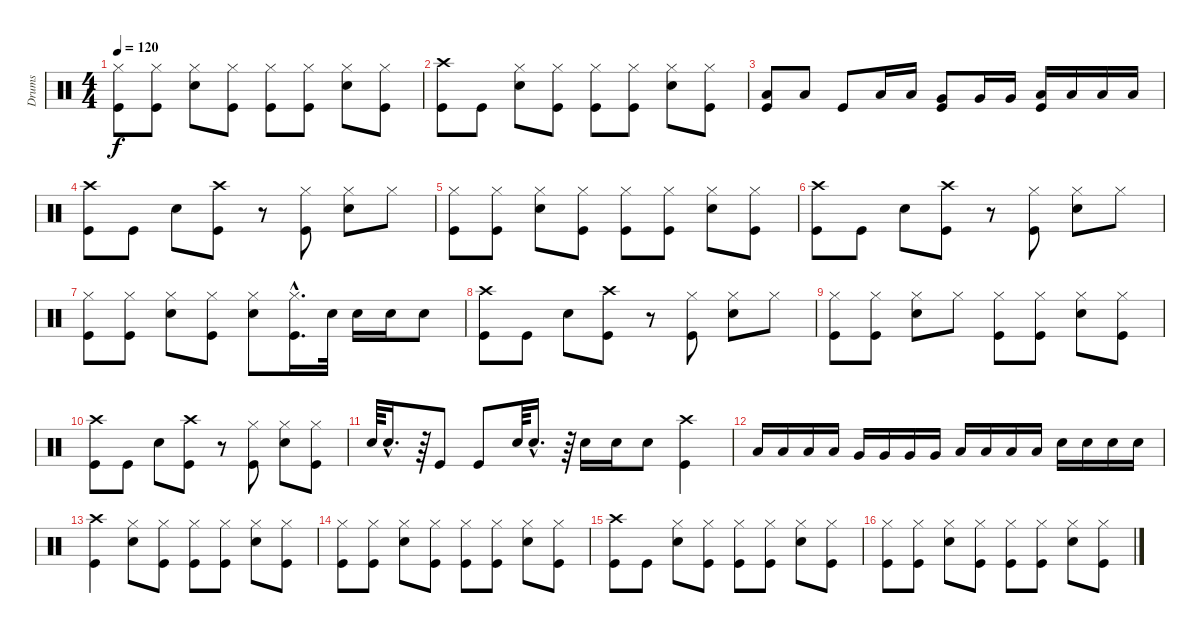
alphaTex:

\track ("Drums" "Drums") {instrument percussion}
\staff {score}
\articulation defaults
\ts (4 4)
\tempo 120
\clef neutral
\ks c
("Hi-Hat (closed)" "Kick (hit)").8{dy f} ("Hi-Hat (closed)" "Kick (hit)").8 ("Hi-Hat (closed)" "Snare (hit) 2").8 ("Hi-Hat (closed)" "Kick (hit)").8 ("Hi-Hat (closed)" "Kick (hit)").8 ("Hi-Hat (closed)" "Kick (hit)").8 ("Hi-Hat (closed)" "Snare (hit) 2").8 ("Hi-Hat (closed)" "Kick (hit)").8 |
("Crash high (hit)" "Kick (hit)").8 "Kick (hit)".8 ("Hi-Hat (closed)" "Snare (hit) 2").8 ("Hi-Hat (closed)" "Kick (hit)").8 ("Hi-Hat (closed)" "Kick (hit)").8 ("Hi-Hat (closed)" "Kick (hit)").8 ("Hi-Hat (closed)" "Snare (hit) 2").8 ("Hi-Hat (closed)" "Kick (hit)").8 |
("Kick (hit)" "Low Tom (hit)").8 "Low Tom (hit)".8 "Kick (hit)".8 "Low Tom (hit)".16 "Low Tom (hit)".16 ("Kick (hit)" "Very Low Tom (hit)").8 "Very Low Tom (hit)".16 "Very Low Tom (hit)".16 ("Kick (hit)" "Low Floor Tom (hit)").16 "Low Floor Tom (hit)".16 "Low Floor Tom (hit)".16 "Low Floor Tom (hit)".16 |
("Crash high (hit)" "Kick (hit)").8 "Kick (hit)".8 "Snare (hit) 2".8 ("Crash high (hit)" "Kick (hit)").8 r.8 ("Hi-Hat (closed)" "Kick (hit)").8 ("Hi-Hat (closed)" "Snare (hit) 2").8 "Hi-Hat (closed)".8 |
("Hi-Hat (closed)" "Kick (hit)").8 ("Hi-Hat (closed)" "Kick (hit)").8 ("Hi-Hat (closed)" "Snare (hit) 2").8 ("Hi-Hat (closed)" "Kick (hit)").8 ("Hi-Hat (closed)" "Kick (hit)").8 ("Hi-Hat (closed)" "Kick (hit)").8 ("Hi-Hat (closed)" "Snare (hit) 2").8 ("Hi-Hat (closed)" "Kick (hit)").8 |
("Crash high (hit)" "Kick (hit)").8 "Kick (hit)".8 "Snare (hit) 2".8 ("Crash high (hit)" "Kick (hit)").8 r.8 ("Hi-Hat (closed)" "Kick (hit)").8 ("Hi-Hat (closed)" "Snare (hit) 2").8 "Hi-Hat (closed)".8 |
("Hi-Hat (closed)" "Kick (hit)").8 ("Hi-Hat (closed)" "Kick (hit)").8 ("Hi-Hat (closed)" "Snare (hit) 2").8 ("Hi-Hat (closed)" "Kick (hit)").8 ("Hi-Hat (closed)" "Snare (hit) 2").8 ("Hi-Hat (closed)"{hac} "Kick (hit)"{hac}).16{d} "Snare (hit) 2".32 "Snare (hit) 2".16 "Snare (hit) 2".16 "Snare (hit) 2".8 |
("Crash high (hit)" "Kick (hit)").8 "Kick (hit)".8 "Snare (hit) 2".8 ("Crash high (hit)" "Kick (hit)").8 r.8 ("Hi-Hat (closed)" "Kick (hit)").8 ("Hi-Hat (closed)" "Snare (hit) 2").8 "Hi-Hat (closed)".8 |
("Hi-Hat (closed)" "Kick (hit)").8 ("Hi-Hat (closed)" "Kick (hit)").8 ("Hi-Hat (closed)" "Snare (hit) 2").8 "Hi-Hat (closed)".8 ("Hi-Hat (closed)" "Kick (hit)").8 ("Hi-Hat (closed)" "Kick (hit)").8 ("Hi-Hat (closed)" "Snare (hit) 2").8 ("Hi-Hat (closed)" "Kick (hit)").8 |
("Crash high (hit)" "Kick (hit)").8 "Kick (hit)".8 "Snare (hit) 2".8 ("Crash high (hit)" "Kick (hit)").8 r.8 ("Hi-Hat (closed)" "Kick (hit)").8 ("Hi-Hat (closed)" "Snare (hit) 2").8 ("Hi-Hat (closed)" "Kick (hit)").8 |
"Snare (hit) 2".64 "Snare (hit) 2"{hac}.16{d} r.64 "Kick (hit)".8 "Kick (hit)".8 "Snare (hit) 2".64 "Snare (hit) 2"{hac}.16{d} r.64 "Snare (hit) 2".16 "Snare (hit) 2".16 "Snare (hit) 2".8 ("Crash high (hit)" "Kick (hit)").4 |
"Low Tom (hit)".16 "Low Tom (hit)".16 "Low Tom (hit)".16 "Low Tom (hit)".16 "Very Low Tom (hit)".16 "Very Low Tom (hit)".16 "Very Low Tom (hit)".16 "Very Low Tom (hit)".16 "Low Floor Tom (hit)".16 "Low Floor Tom (hit)".16 "Low Floor Tom (hit)".16 "Low Floor Tom (hit)".16 "Snare (hit) 2".16 "Snare (hit) 2".16 "Snare (hit) 2".16 "Snare (hit) 2".16 |
("Crash high (hit)" "Kick (hit)").4 ("Hi-Hat (closed)" "Snare (hit) 2").8 ("Hi-Hat (closed)" "Kick (hit)").8 ("Hi-Hat (closed)" "Kick (hit)").8 ("Hi-Hat (closed)" "Kick (hit)").8 ("Hi-Hat (closed)" "Snare (hit) 2").8 ("Hi-Hat (closed)" "Kick (hit)").8 |
("Hi-Hat (closed)" "Kick (hit)").8 ("Hi-Hat (closed)" "Kick (hit)").8 ("Hi-Hat (closed)" "Snare (hit) 2").8 ("Hi-Hat (closed)" "Kick (hit)").8 ("Hi-Hat (closed)" "Kick (hit)").8 ("Hi-Hat (closed)" "Kick (hit)").8 ("Hi-Hat (closed)" "Snare (hit) 2").8 ("Hi-Hat (closed)" "Kick (hit)").8 |
("Crash high (hit)" "Kick (hit)").8 "Kick (hit)".8 ("Hi-Hat (closed)" "Snare (hit) 2").8 ("Hi-Hat (closed)" "Kick (hit)").8 ("Hi-Hat (closed)" "Kick (hit)").8 ("Hi-Hat (closed)" "Kick (hit)").8 ("Hi-Hat (closed)" "Snare (hit) 2").8 ("Hi-Hat (closed)" "Kick (hit)").8 |
("Hi-Hat (closed)" "Kick (hit)").8 ("Hi-Hat (closed)" "Kick (hit)").8 ("Hi-Hat (closed)" "Snare (hit) 2").8 ("Hi-Hat (closed)" "Kick (hit)").8 ("Hi-Hat (closed)" "Kick (hit)").8 ("Hi-Hat (closed)" "Kick (hit)").8 ("Hi-Hat (closed)" "Snare (hit) 2").8 ("Hi-Hat (closed)" "Kick (hit)").8
